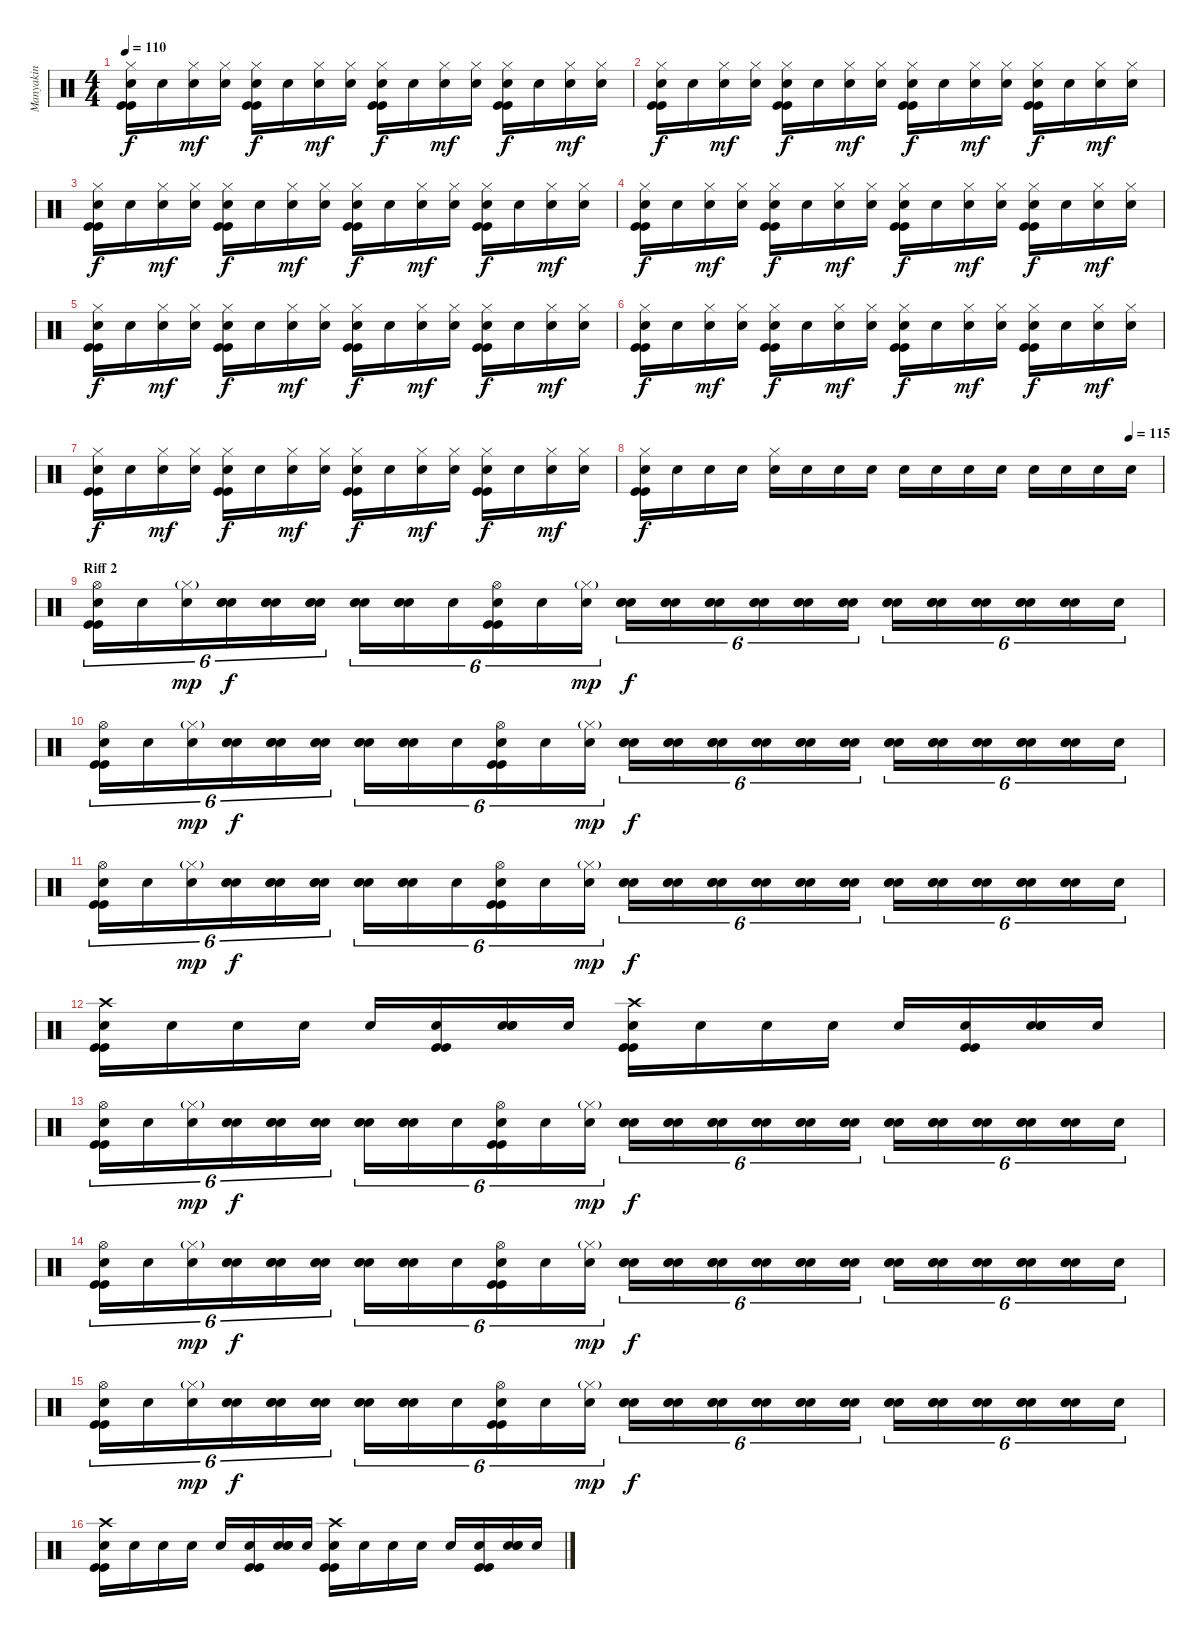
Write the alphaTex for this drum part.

\track ("Manyakin" "Manyakin") {instrument percussion}
\staff {score}
\articulation defaults
\ts (4 4)
\tempo 110
\clef neutral
\ks c
("Hi-Hat (closed)" "Kick (hit)" "Kick (hit)" "Snare (hit)"{x}).16{dy f} "Snare (hit)"{x}.16 ("Hi-Hat (closed)" "Snare (hit)"{x}).16{dy mf} ("Hi-Hat (closed)" "Snare (hit)"{x}).16 ("Hi-Hat (closed)" "Kick (hit)" "Kick (hit)" "Snare (hit)"{x}).16{dy f} "Snare (hit)"{x}.16 ("Hi-Hat (closed)" "Snare (hit)"{x}).16{dy mf} ("Hi-Hat (closed)" "Snare (hit)"{x}).16 ("Hi-Hat (closed)" "Kick (hit)" "Kick (hit)" "Snare (hit)"{x}).16{dy f} "Snare (hit)"{x}.16 ("Hi-Hat (closed)" "Snare (hit)"{x}).16{dy mf} ("Hi-Hat (closed)" "Snare (hit)"{x}).16 ("Hi-Hat (closed)" "Kick (hit)" "Kick (hit)" "Snare (hit)"{x}).16{dy f} "Snare (hit)"{x}.16 ("Hi-Hat (closed)" "Snare (hit)"{x}).16{dy mf} ("Hi-Hat (closed)" "Snare (hit)"{x}).16 |
("Hi-Hat (closed)" "Kick (hit)" "Kick (hit)" "Snare (hit)"{x}).16{dy f} "Snare (hit)"{x}.16 ("Hi-Hat (closed)" "Snare (hit)"{x}).16{dy mf} ("Hi-Hat (closed)" "Snare (hit)"{x}).16 ("Hi-Hat (closed)" "Kick (hit)" "Kick (hit)" "Snare (hit)"{x}).16{dy f} "Snare (hit)"{x}.16 ("Hi-Hat (closed)" "Snare (hit)"{x}).16{dy mf} ("Hi-Hat (closed)" "Snare (hit)"{x}).16 ("Hi-Hat (closed)" "Kick (hit)" "Kick (hit)" "Snare (hit)"{x}).16{dy f} "Snare (hit)"{x}.16 ("Hi-Hat (closed)" "Snare (hit)"{x}).16{dy mf} ("Hi-Hat (closed)" "Snare (hit)"{x}).16 ("Hi-Hat (closed)" "Kick (hit)" "Kick (hit)" "Snare (hit)"{x}).16{dy f} "Snare (hit)"{x}.16 ("Hi-Hat (closed)" "Snare (hit)"{x}).16{dy mf} ("Hi-Hat (closed)" "Snare (hit)"{x}).16 |
("Hi-Hat (closed)" "Kick (hit)" "Kick (hit)" "Snare (hit)"{x}).16{dy f} "Snare (hit)"{x}.16 ("Hi-Hat (closed)" "Snare (hit)"{x}).16{dy mf} ("Hi-Hat (closed)" "Snare (hit)"{x}).16 ("Hi-Hat (closed)" "Kick (hit)" "Kick (hit)" "Snare (hit)"{x}).16{dy f} "Snare (hit)"{x}.16 ("Hi-Hat (closed)" "Snare (hit)"{x}).16{dy mf} ("Hi-Hat (closed)" "Snare (hit)"{x}).16 ("Hi-Hat (closed)" "Kick (hit)" "Kick (hit)" "Snare (hit)"{x}).16{dy f} "Snare (hit)"{x}.16 ("Hi-Hat (closed)" "Snare (hit)"{x}).16{dy mf} ("Hi-Hat (closed)" "Snare (hit)"{x}).16 ("Hi-Hat (closed)" "Kick (hit)" "Kick (hit)" "Snare (hit)"{x}).16{dy f} "Snare (hit)"{x}.16 ("Hi-Hat (closed)" "Snare (hit)"{x}).16{dy mf} ("Hi-Hat (closed)" "Snare (hit)"{x}).16 |
("Hi-Hat (closed)" "Kick (hit)" "Kick (hit)" "Snare (hit)"{x}).16{dy f} "Snare (hit)"{x}.16 ("Hi-Hat (closed)" "Snare (hit)"{x}).16{dy mf} ("Hi-Hat (closed)" "Snare (hit)"{x}).16 ("Hi-Hat (closed)" "Kick (hit)" "Kick (hit)" "Snare (hit)"{x}).16{dy f} "Snare (hit)"{x}.16 ("Hi-Hat (closed)" "Snare (hit)"{x}).16{dy mf} ("Hi-Hat (closed)" "Snare (hit)"{x}).16 ("Hi-Hat (closed)" "Kick (hit)" "Kick (hit)" "Snare (hit)"{x}).16{dy f} "Snare (hit)"{x}.16 ("Hi-Hat (closed)" "Snare (hit)"{x}).16{dy mf} ("Hi-Hat (closed)" "Snare (hit)"{x}).16 ("Hi-Hat (closed)" "Kick (hit)" "Kick (hit)" "Snare (hit)"{x}).16{dy f} "Snare (hit)"{x}.16 ("Hi-Hat (closed)" "Snare (hit)"{x}).16{dy mf} ("Hi-Hat (closed)" "Snare (hit)"{x}).16 |
("Hi-Hat (closed)" "Kick (hit)" "Kick (hit)" "Snare (hit)"{x}).16{dy f} "Snare (hit)"{x}.16 ("Hi-Hat (closed)" "Snare (hit)"{x}).16{dy mf} ("Hi-Hat (closed)" "Snare (hit)"{x}).16 ("Hi-Hat (closed)" "Kick (hit)" "Kick (hit)" "Snare (hit)"{x}).16{dy f} "Snare (hit)"{x}.16 ("Hi-Hat (closed)" "Snare (hit)"{x}).16{dy mf} ("Hi-Hat (closed)" "Snare (hit)"{x}).16 ("Hi-Hat (closed)" "Kick (hit)" "Kick (hit)" "Snare (hit)"{x}).16{dy f} "Snare (hit)"{x}.16 ("Hi-Hat (closed)" "Snare (hit)"{x}).16{dy mf} ("Hi-Hat (closed)" "Snare (hit)"{x}).16 ("Hi-Hat (closed)" "Kick (hit)" "Kick (hit)" "Snare (hit)"{x}).16{dy f} "Snare (hit)"{x}.16 ("Hi-Hat (closed)" "Snare (hit)"{x}).16{dy mf} ("Hi-Hat (closed)" "Snare (hit)"{x}).16 |
("Hi-Hat (closed)" "Kick (hit)" "Kick (hit)" "Snare (hit)"{x}).16{dy f} "Snare (hit)"{x}.16 ("Hi-Hat (closed)" "Snare (hit)"{x}).16{dy mf} ("Hi-Hat (closed)" "Snare (hit)"{x}).16 ("Hi-Hat (closed)" "Kick (hit)" "Kick (hit)" "Snare (hit)"{x}).16{dy f} "Snare (hit)"{x}.16 ("Hi-Hat (closed)" "Snare (hit)"{x}).16{dy mf} ("Hi-Hat (closed)" "Snare (hit)"{x}).16 ("Hi-Hat (closed)" "Kick (hit)" "Kick (hit)" "Snare (hit)"{x}).16{dy f} "Snare (hit)"{x}.16 ("Hi-Hat (closed)" "Snare (hit)"{x}).16{dy mf} ("Hi-Hat (closed)" "Snare (hit)"{x}).16 ("Hi-Hat (closed)" "Kick (hit)" "Kick (hit)" "Snare (hit)"{x}).16{dy f} "Snare (hit)"{x}.16 ("Hi-Hat (closed)" "Snare (hit)"{x}).16{dy mf} ("Hi-Hat (closed)" "Snare (hit)"{x}).16 |
("Hi-Hat (closed)" "Kick (hit)" "Kick (hit)" "Snare (hit)"{x}).16{dy f} "Snare (hit)"{x}.16 ("Hi-Hat (closed)" "Snare (hit)"{x}).16{dy mf} ("Hi-Hat (closed)" "Snare (hit)"{x}).16 ("Hi-Hat (closed)" "Kick (hit)" "Kick (hit)" "Snare (hit)"{x}).16{dy f} "Snare (hit)"{x}.16 ("Hi-Hat (closed)" "Snare (hit)"{x}).16{dy mf} ("Hi-Hat (closed)" "Snare (hit)"{x}).16 ("Hi-Hat (closed)" "Kick (hit)" "Kick (hit)" "Snare (hit)"{x}).16{dy f} "Snare (hit)"{x}.16 ("Hi-Hat (closed)" "Snare (hit)"{x}).16{dy mf} ("Hi-Hat (closed)" "Snare (hit)"{x}).16 ("Hi-Hat (closed)" "Kick (hit)" "Kick (hit)" "Snare (hit)"{x}).16{dy f} "Snare (hit)"{x}.16 ("Hi-Hat (closed)" "Snare (hit)"{x}).16{dy mf} ("Hi-Hat (closed)" "Snare (hit)"{x}).16 |
\tempo (115 0.9375)
("Hi-Hat (closed)" "Kick (hit)" "Kick (hit)" "Snare (hit)"{x}).16{dy f} "Snare (hit)"{x}.16 "Snare (hit)"{x}.16 "Snare (hit)"{x}.16 ("Hi-Hat (closed)" "Snare (hit)"{x}).16 "Snare (hit)"{x}.16 "Snare (hit)"{x}.16 "Snare (hit)"{x}.16 "Snare (hit)"{x}.16 "Snare (hit)"{x}.16 "Snare (hit)"{x}.16 "Snare (hit)"{x}.16 "Snare (hit)"{x}.16 "Snare (hit)"{x}.16 "Snare (hit)"{x}.16 "Snare (hit)"{x}.16 |
\section ("" "Riff 2")
("Hi-Hat (open)" "Kick (hit)" "Kick (hit)" "Snare (hit)"{x}).16{tu (6 4)} "Snare (hit)"{x}.16{tu (6 4)} ("Hi-Hat (closed)"{g} "Snare (hit)"{x}).16{tu (6 4) dy mp} ("Electric Snare (hit)" "Electric Snare (hit)" "Snare (hit)"{x}).16{tu (6 4) dy f} ("Electric Snare (hit)" "Electric Snare (hit)" "Snare (hit)"{x}).16{tu (6 4)} ("Electric Snare (hit)" "Electric Snare (hit)" "Snare (hit)"{x}).16{tu (6 4)} ("Electric Snare (hit)" "Electric Snare (hit)" "Snare (hit)"{x}).16{tu (6 4)} ("Electric Snare (hit)" "Electric Snare (hit)" "Snare (hit)"{x}).16{tu (6 4)} "Snare (hit)"{x}.16{tu (6 4)} ("Hi-Hat (open)" "Kick (hit)" "Kick (hit)" "Snare (hit)"{x}).16{tu (6 4)} "Snare (hit)"{x}.16{tu (6 4)} ("Hi-Hat (closed)"{g} "Snare (hit)"{x}).16{tu (6 4) dy mp} ("Electric Snare (hit)" "Electric Snare (hit)" "Snare (hit)"{x}).16{tu (6 4) dy f} ("Electric Snare (hit)" "Electric Snare (hit)" "Snare (hit)"{x}).16{tu (6 4)} ("Electric Snare (hit)" "Electric Snare (hit)" "Snare (hit)"{x}).16{tu (6 4)} ("Electric Snare (hit)" "Electric Snare (hit)" "Snare (hit)"{x}).16{tu (6 4)} ("Electric Snare (hit)" "Electric Snare (hit)" "Snare (hit)"{x}).16{tu (6 4)} ("Electric Snare (hit)" "Electric Snare (hit)" "Snare (hit)"{x}).16{tu (6 4)} ("Electric Snare (hit)" "Electric Snare (hit)" "Snare (hit)"{x}).16{tu (6 4)} ("Electric Snare (hit)" "Electric Snare (hit)" "Snare (hit)"{x}).16{tu (6 4)} ("Electric Snare (hit)" "Electric Snare (hit)" "Snare (hit)"{x}).16{tu (6 4)} ("Electric Snare (hit)" "Electric Snare (hit)" "Snare (hit)"{x}).16{tu (6 4)} ("Electric Snare (hit)" "Electric Snare (hit)" "Snare (hit)"{x}).16{tu (6 4)} "Snare (hit)"{x}.16{tu (6 4)} |
("Hi-Hat (open)" "Kick (hit)" "Kick (hit)" "Snare (hit)"{x}).16{tu (6 4)} "Snare (hit)"{x}.16{tu (6 4)} ("Hi-Hat (closed)"{g} "Snare (hit)"{x}).16{tu (6 4) dy mp} ("Electric Snare (hit)" "Electric Snare (hit)" "Snare (hit)"{x}).16{tu (6 4) dy f} ("Electric Snare (hit)" "Electric Snare (hit)" "Snare (hit)"{x}).16{tu (6 4)} ("Electric Snare (hit)" "Electric Snare (hit)" "Snare (hit)"{x}).16{tu (6 4)} ("Electric Snare (hit)" "Electric Snare (hit)" "Snare (hit)"{x}).16{tu (6 4)} ("Electric Snare (hit)" "Electric Snare (hit)" "Snare (hit)"{x}).16{tu (6 4)} "Snare (hit)"{x}.16{tu (6 4)} ("Hi-Hat (open)" "Kick (hit)" "Kick (hit)" "Snare (hit)"{x}).16{tu (6 4)} "Snare (hit)"{x}.16{tu (6 4)} ("Hi-Hat (closed)"{g} "Snare (hit)"{x}).16{tu (6 4) dy mp} ("Electric Snare (hit)" "Electric Snare (hit)" "Snare (hit)"{x}).16{tu (6 4) dy f} ("Electric Snare (hit)" "Electric Snare (hit)" "Snare (hit)"{x}).16{tu (6 4)} ("Electric Snare (hit)" "Electric Snare (hit)" "Snare (hit)"{x}).16{tu (6 4)} ("Electric Snare (hit)" "Electric Snare (hit)" "Snare (hit)"{x}).16{tu (6 4)} ("Electric Snare (hit)" "Electric Snare (hit)" "Snare (hit)"{x}).16{tu (6 4)} ("Electric Snare (hit)" "Electric Snare (hit)" "Snare (hit)"{x}).16{tu (6 4)} ("Electric Snare (hit)" "Electric Snare (hit)" "Snare (hit)"{x}).16{tu (6 4)} ("Electric Snare (hit)" "Electric Snare (hit)" "Snare (hit)"{x}).16{tu (6 4)} ("Electric Snare (hit)" "Electric Snare (hit)" "Snare (hit)"{x}).16{tu (6 4)} ("Electric Snare (hit)" "Electric Snare (hit)" "Snare (hit)"{x}).16{tu (6 4)} ("Electric Snare (hit)" "Electric Snare (hit)" "Snare (hit)"{x}).16{tu (6 4)} "Snare (hit)"{x}.16{tu (6 4)} |
("Hi-Hat (open)" "Kick (hit)" "Kick (hit)" "Snare (hit)"{x}).16{tu (6 4)} "Snare (hit)"{x}.16{tu (6 4)} ("Hi-Hat (closed)"{g} "Snare (hit)"{x}).16{tu (6 4) dy mp} ("Electric Snare (hit)" "Electric Snare (hit)" "Snare (hit)"{x}).16{tu (6 4) dy f} ("Electric Snare (hit)" "Electric Snare (hit)" "Snare (hit)"{x}).16{tu (6 4)} ("Electric Snare (hit)" "Electric Snare (hit)" "Snare (hit)"{x}).16{tu (6 4)} ("Electric Snare (hit)" "Electric Snare (hit)" "Snare (hit)"{x}).16{tu (6 4)} ("Electric Snare (hit)" "Electric Snare (hit)" "Snare (hit)"{x}).16{tu (6 4)} "Snare (hit)"{x}.16{tu (6 4)} ("Hi-Hat (open)" "Kick (hit)" "Kick (hit)" "Snare (hit)"{x}).16{tu (6 4)} "Snare (hit)"{x}.16{tu (6 4)} ("Hi-Hat (closed)"{g} "Snare (hit)"{x}).16{tu (6 4) dy mp} ("Electric Snare (hit)" "Electric Snare (hit)" "Snare (hit)"{x}).16{tu (6 4) dy f} ("Electric Snare (hit)" "Electric Snare (hit)" "Snare (hit)"{x}).16{tu (6 4)} ("Electric Snare (hit)" "Electric Snare (hit)" "Snare (hit)"{x}).16{tu (6 4)} ("Electric Snare (hit)" "Electric Snare (hit)" "Snare (hit)"{x}).16{tu (6 4)} ("Electric Snare (hit)" "Electric Snare (hit)" "Snare (hit)"{x}).16{tu (6 4)} ("Electric Snare (hit)" "Electric Snare (hit)" "Snare (hit)"{x}).16{tu (6 4)} ("Electric Snare (hit)" "Electric Snare (hit)" "Snare (hit)"{x}).16{tu (6 4)} ("Electric Snare (hit)" "Electric Snare (hit)" "Snare (hit)"{x}).16{tu (6 4)} ("Electric Snare (hit)" "Electric Snare (hit)" "Snare (hit)"{x}).16{tu (6 4)} ("Electric Snare (hit)" "Electric Snare (hit)" "Snare (hit)"{x}).16{tu (6 4)} ("Electric Snare (hit)" "Electric Snare (hit)" "Snare (hit)"{x}).16{tu (6 4)} "Snare (hit)"{x}.16{tu (6 4)} |
("Crash high (hit)" "Kick (hit)" "Kick (hit)" "Snare (hit)"{x}).16 "Snare (hit)"{x}.16 "Snare (hit)"{x}.16 "Snare (hit)"{x}.16 "Snare (hit)"{x}.16 ("Kick (hit)" "Kick (hit)" "Snare (hit)"{x}).16 ("Electric Snare (hit)" "Electric Snare (hit)" "Snare (hit)"{x}).16 "Snare (hit)"{x}.16 ("Crash high (hit)" "Kick (hit)" "Kick (hit)" "Snare (hit)"{x}).16 "Snare (hit)"{x}.16 "Snare (hit)"{x}.16 "Snare (hit)"{x}.16 "Snare (hit)"{x}.16 ("Kick (hit)" "Kick (hit)" "Snare (hit)"{x}).16 ("Electric Snare (hit)" "Electric Snare (hit)" "Snare (hit)"{x}).16 "Snare (hit)"{x}.16 |
("Hi-Hat (open)" "Kick (hit)" "Kick (hit)" "Snare (hit)"{x}).16{tu (6 4)} "Snare (hit)"{x}.16{tu (6 4)} ("Hi-Hat (closed)"{g} "Snare (hit)"{x}).16{tu (6 4) dy mp} ("Electric Snare (hit)" "Electric Snare (hit)" "Snare (hit)"{x}).16{tu (6 4) dy f} ("Electric Snare (hit)" "Electric Snare (hit)" "Snare (hit)"{x}).16{tu (6 4)} ("Electric Snare (hit)" "Electric Snare (hit)" "Snare (hit)"{x}).16{tu (6 4)} ("Electric Snare (hit)" "Electric Snare (hit)" "Snare (hit)"{x}).16{tu (6 4)} ("Electric Snare (hit)" "Electric Snare (hit)" "Snare (hit)"{x}).16{tu (6 4)} "Snare (hit)"{x}.16{tu (6 4)} ("Hi-Hat (open)" "Kick (hit)" "Kick (hit)" "Snare (hit)"{x}).16{tu (6 4)} "Snare (hit)"{x}.16{tu (6 4)} ("Hi-Hat (closed)"{g} "Snare (hit)"{x}).16{tu (6 4) dy mp} ("Electric Snare (hit)" "Electric Snare (hit)" "Snare (hit)"{x}).16{tu (6 4) dy f} ("Electric Snare (hit)" "Electric Snare (hit)" "Snare (hit)"{x}).16{tu (6 4)} ("Electric Snare (hit)" "Electric Snare (hit)" "Snare (hit)"{x}).16{tu (6 4)} ("Electric Snare (hit)" "Electric Snare (hit)" "Snare (hit)"{x}).16{tu (6 4)} ("Electric Snare (hit)" "Electric Snare (hit)" "Snare (hit)"{x}).16{tu (6 4)} ("Electric Snare (hit)" "Electric Snare (hit)" "Snare (hit)"{x}).16{tu (6 4)} ("Electric Snare (hit)" "Electric Snare (hit)" "Snare (hit)"{x}).16{tu (6 4)} ("Electric Snare (hit)" "Electric Snare (hit)" "Snare (hit)"{x}).16{tu (6 4)} ("Electric Snare (hit)" "Electric Snare (hit)" "Snare (hit)"{x}).16{tu (6 4)} ("Electric Snare (hit)" "Electric Snare (hit)" "Snare (hit)"{x}).16{tu (6 4)} ("Electric Snare (hit)" "Electric Snare (hit)" "Snare (hit)"{x}).16{tu (6 4)} "Snare (hit)"{x}.16{tu (6 4)} |
("Hi-Hat (open)" "Kick (hit)" "Kick (hit)" "Snare (hit)"{x}).16{tu (6 4)} "Snare (hit)"{x}.16{tu (6 4)} ("Hi-Hat (closed)"{g} "Snare (hit)"{x}).16{tu (6 4) dy mp} ("Electric Snare (hit)" "Electric Snare (hit)" "Snare (hit)"{x}).16{tu (6 4) dy f} ("Electric Snare (hit)" "Electric Snare (hit)" "Snare (hit)"{x}).16{tu (6 4)} ("Electric Snare (hit)" "Electric Snare (hit)" "Snare (hit)"{x}).16{tu (6 4)} ("Electric Snare (hit)" "Electric Snare (hit)" "Snare (hit)"{x}).16{tu (6 4)} ("Electric Snare (hit)" "Electric Snare (hit)" "Snare (hit)"{x}).16{tu (6 4)} "Snare (hit)"{x}.16{tu (6 4)} ("Hi-Hat (open)" "Kick (hit)" "Kick (hit)" "Snare (hit)"{x}).16{tu (6 4)} "Snare (hit)"{x}.16{tu (6 4)} ("Hi-Hat (closed)"{g} "Snare (hit)"{x}).16{tu (6 4) dy mp} ("Electric Snare (hit)" "Electric Snare (hit)" "Snare (hit)"{x}).16{tu (6 4) dy f} ("Electric Snare (hit)" "Electric Snare (hit)" "Snare (hit)"{x}).16{tu (6 4)} ("Electric Snare (hit)" "Electric Snare (hit)" "Snare (hit)"{x}).16{tu (6 4)} ("Electric Snare (hit)" "Electric Snare (hit)" "Snare (hit)"{x}).16{tu (6 4)} ("Electric Snare (hit)" "Electric Snare (hit)" "Snare (hit)"{x}).16{tu (6 4)} ("Electric Snare (hit)" "Electric Snare (hit)" "Snare (hit)"{x}).16{tu (6 4)} ("Electric Snare (hit)" "Electric Snare (hit)" "Snare (hit)"{x}).16{tu (6 4)} ("Electric Snare (hit)" "Electric Snare (hit)" "Snare (hit)"{x}).16{tu (6 4)} ("Electric Snare (hit)" "Electric Snare (hit)" "Snare (hit)"{x}).16{tu (6 4)} ("Electric Snare (hit)" "Electric Snare (hit)" "Snare (hit)"{x}).16{tu (6 4)} ("Electric Snare (hit)" "Electric Snare (hit)" "Snare (hit)"{x}).16{tu (6 4)} "Snare (hit)"{x}.16{tu (6 4)} |
("Hi-Hat (open)" "Kick (hit)" "Kick (hit)" "Snare (hit)"{x}).16{tu (6 4)} "Snare (hit)"{x}.16{tu (6 4)} ("Hi-Hat (closed)"{g} "Snare (hit)"{x}).16{tu (6 4) dy mp} ("Electric Snare (hit)" "Electric Snare (hit)" "Snare (hit)"{x}).16{tu (6 4) dy f} ("Electric Snare (hit)" "Electric Snare (hit)" "Snare (hit)"{x}).16{tu (6 4)} ("Electric Snare (hit)" "Electric Snare (hit)" "Snare (hit)"{x}).16{tu (6 4)} ("Electric Snare (hit)" "Electric Snare (hit)" "Snare (hit)"{x}).16{tu (6 4)} ("Electric Snare (hit)" "Electric Snare (hit)" "Snare (hit)"{x}).16{tu (6 4)} "Snare (hit)"{x}.16{tu (6 4)} ("Hi-Hat (open)" "Kick (hit)" "Kick (hit)" "Snare (hit)"{x}).16{tu (6 4)} "Snare (hit)"{x}.16{tu (6 4)} ("Hi-Hat (closed)"{g} "Snare (hit)"{x}).16{tu (6 4) dy mp} ("Electric Snare (hit)" "Electric Snare (hit)" "Snare (hit)"{x}).16{tu (6 4) dy f} ("Electric Snare (hit)" "Electric Snare (hit)" "Snare (hit)"{x}).16{tu (6 4)} ("Electric Snare (hit)" "Electric Snare (hit)" "Snare (hit)"{x}).16{tu (6 4)} ("Electric Snare (hit)" "Electric Snare (hit)" "Snare (hit)"{x}).16{tu (6 4)} ("Electric Snare (hit)" "Electric Snare (hit)" "Snare (hit)"{x}).16{tu (6 4)} ("Electric Snare (hit)" "Electric Snare (hit)" "Snare (hit)"{x}).16{tu (6 4)} ("Electric Snare (hit)" "Electric Snare (hit)" "Snare (hit)"{x}).16{tu (6 4)} ("Electric Snare (hit)" "Electric Snare (hit)" "Snare (hit)"{x}).16{tu (6 4)} ("Electric Snare (hit)" "Electric Snare (hit)" "Snare (hit)"{x}).16{tu (6 4)} ("Electric Snare (hit)" "Electric Snare (hit)" "Snare (hit)"{x}).16{tu (6 4)} ("Electric Snare (hit)" "Electric Snare (hit)" "Snare (hit)"{x}).16{tu (6 4)} "Snare (hit)"{x}.16{tu (6 4)} |
("Crash high (hit)" "Kick (hit)" "Kick (hit)" "Snare (hit)"{x}).16 "Snare (hit)"{x}.16 "Snare (hit)"{x}.16 "Snare (hit)"{x}.16 "Snare (hit)"{x}.16 ("Kick (hit)" "Kick (hit)" "Snare (hit)"{x}).16 ("Electric Snare (hit)" "Electric Snare (hit)" "Snare (hit)"{x}).16 "Snare (hit)"{x}.16 ("Crash high (hit)" "Kick (hit)" "Kick (hit)" "Snare (hit)"{x}).16 "Snare (hit)"{x}.16 "Snare (hit)"{x}.16 "Snare (hit)"{x}.16 "Snare (hit)"{x}.16 ("Kick (hit)" "Kick (hit)" "Snare (hit)"{x}).16 ("Electric Snare (hit)" "Electric Snare (hit)" "Snare (hit)"{x}).16 "Snare (hit)"{x}.16
